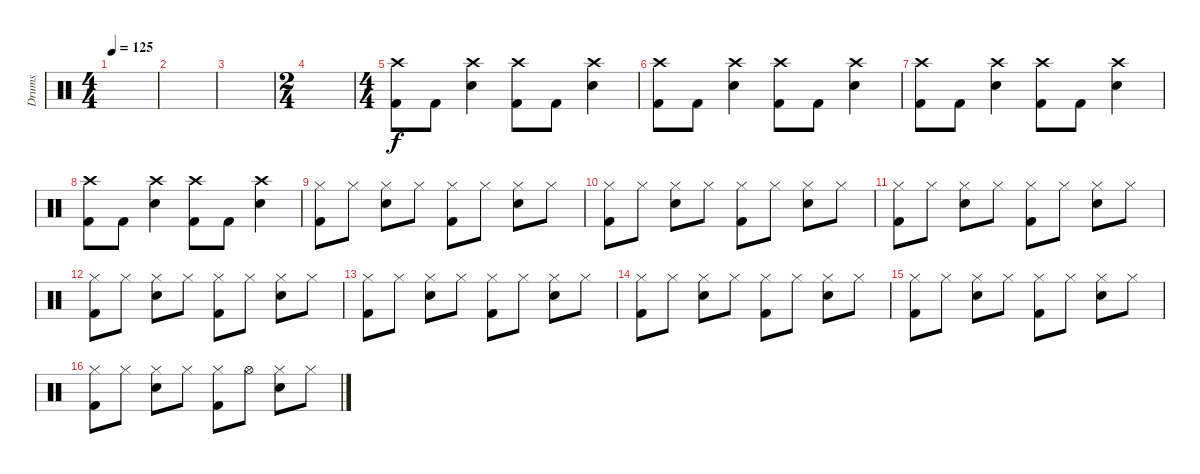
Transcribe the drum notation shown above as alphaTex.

\track ("Drums" "Drums") {instrument percussion}
\staff {score}
\articulation defaults
\ts (4 4)
\tempo 125
\clef neutral
\ks c
|
|
|
\ts (2 4)
|
\ts (4 4)
("Crash high (hit)" "Kick (hit) 2").8 "Kick (hit) 2".8 ("Crash high (hit)" "Snare (hit) 2").4 ("Crash high (hit)" "Kick (hit) 2").8 "Kick (hit) 2".8 ("Crash high (hit)" "Snare (hit) 2").4 |
("Crash high (hit)" "Kick (hit) 2").8 "Kick (hit) 2".8 ("Crash high (hit)" "Snare (hit) 2").4 ("Crash high (hit)" "Kick (hit) 2").8 "Kick (hit) 2".8 ("Crash high (hit)" "Snare (hit) 2").4 |
("Crash high (hit)" "Kick (hit) 2").8 "Kick (hit) 2".8 ("Crash high (hit)" "Snare (hit) 2").4 ("Crash high (hit)" "Kick (hit) 2").8 "Kick (hit) 2".8 ("Crash high (hit)" "Snare (hit) 2").4 |
("Crash high (hit)" "Kick (hit) 2").8 "Kick (hit) 2".8 ("Crash high (hit)" "Snare (hit) 2").4 ("Crash high (hit)" "Kick (hit) 2").8 "Kick (hit) 2".8 ("Crash high (hit)" "Snare (hit) 2").4 |
("Hi-Hat (closed)" "Kick (hit) 2").8 "Hi-Hat (closed)".8 ("Hi-Hat (closed)" "Snare (hit) 2").8 "Hi-Hat (closed)".8 ("Hi-Hat (closed)" "Kick (hit) 2").8 "Hi-Hat (closed)".8 ("Hi-Hat (closed)" "Snare (hit) 2").8 "Hi-Hat (closed)".8 |
("Hi-Hat (closed)" "Kick (hit) 2").8 "Hi-Hat (closed)".8 ("Hi-Hat (closed)" "Snare (hit) 2").8 "Hi-Hat (closed)".8 ("Hi-Hat (closed)" "Kick (hit) 2").8 "Hi-Hat (closed)".8 ("Hi-Hat (closed)" "Snare (hit) 2").8 "Hi-Hat (closed)".8 |
("Hi-Hat (closed)" "Kick (hit) 2").8 "Hi-Hat (closed)".8 ("Hi-Hat (closed)" "Snare (hit) 2").8 "Hi-Hat (closed)".8 ("Hi-Hat (closed)" "Kick (hit) 2").8 "Hi-Hat (closed)".8 ("Hi-Hat (closed)" "Snare (hit) 2").8 "Hi-Hat (closed)".8 |
("Hi-Hat (closed)" "Kick (hit) 2").8 "Hi-Hat (closed)".8 ("Hi-Hat (closed)" "Snare (hit) 2").8 "Hi-Hat (closed)".8 ("Hi-Hat (closed)" "Kick (hit) 2").8 "Hi-Hat (closed)".8 ("Hi-Hat (closed)" "Snare (hit) 2").8 "Hi-Hat (closed)".8 |
("Hi-Hat (closed)" "Kick (hit) 2").8 "Hi-Hat (closed)".8 ("Hi-Hat (closed)" "Snare (hit) 2").8 "Hi-Hat (closed)".8 ("Hi-Hat (closed)" "Kick (hit) 2").8 "Hi-Hat (closed)".8 ("Hi-Hat (closed)" "Snare (hit) 2").8 "Hi-Hat (closed)".8 |
("Hi-Hat (closed)" "Kick (hit) 2").8 "Hi-Hat (closed)".8 ("Hi-Hat (closed)" "Snare (hit) 2").8 "Hi-Hat (closed)".8 ("Hi-Hat (closed)" "Kick (hit) 2").8 "Hi-Hat (closed)".8 ("Hi-Hat (closed)" "Snare (hit) 2").8 "Hi-Hat (closed)".8 |
("Hi-Hat (closed)" "Kick (hit) 2").8 "Hi-Hat (closed)".8 ("Hi-Hat (closed)" "Snare (hit) 2").8 "Hi-Hat (closed)".8 ("Hi-Hat (closed)" "Kick (hit) 2").8 "Hi-Hat (closed)".8 ("Hi-Hat (closed)" "Snare (hit) 2").8 "Hi-Hat (closed)".8 |
("Hi-Hat (closed)" "Kick (hit) 2").8 "Hi-Hat (closed)".8 ("Hi-Hat (closed)" "Snare (hit) 2").8 "Hi-Hat (closed)".8 ("Hi-Hat (closed)" "Kick (hit) 2").8 "Hi-Hat (open)".8 ("Hi-Hat (closed)" "Snare (hit) 2").8 "Hi-Hat (closed)".8
